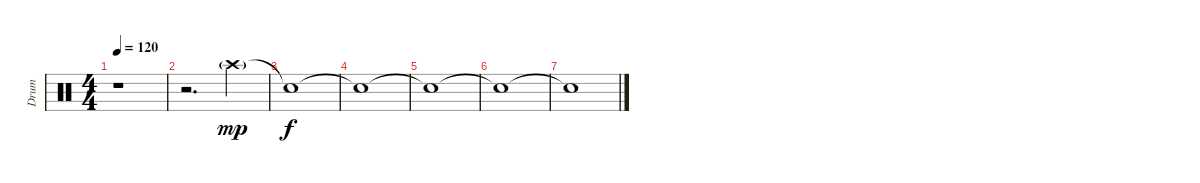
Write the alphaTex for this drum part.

\track ("Drum" "Drum") {instrument percussion}
\staff {score}
\articulation defaults
\ts (4 4)
\tempo 120
\clef neutral
\ks c
r.1{dy mp} |
r.2{d} "Crash high (hit)"{g}.4 |
"Snare (hit)"{t}.1{dy f} |
"Snare (hit)"{t}.1 |
"Snare (hit)"{t}.1 |
"Snare (hit)"{t}.1 |
"Snare (hit)"{t}.1
